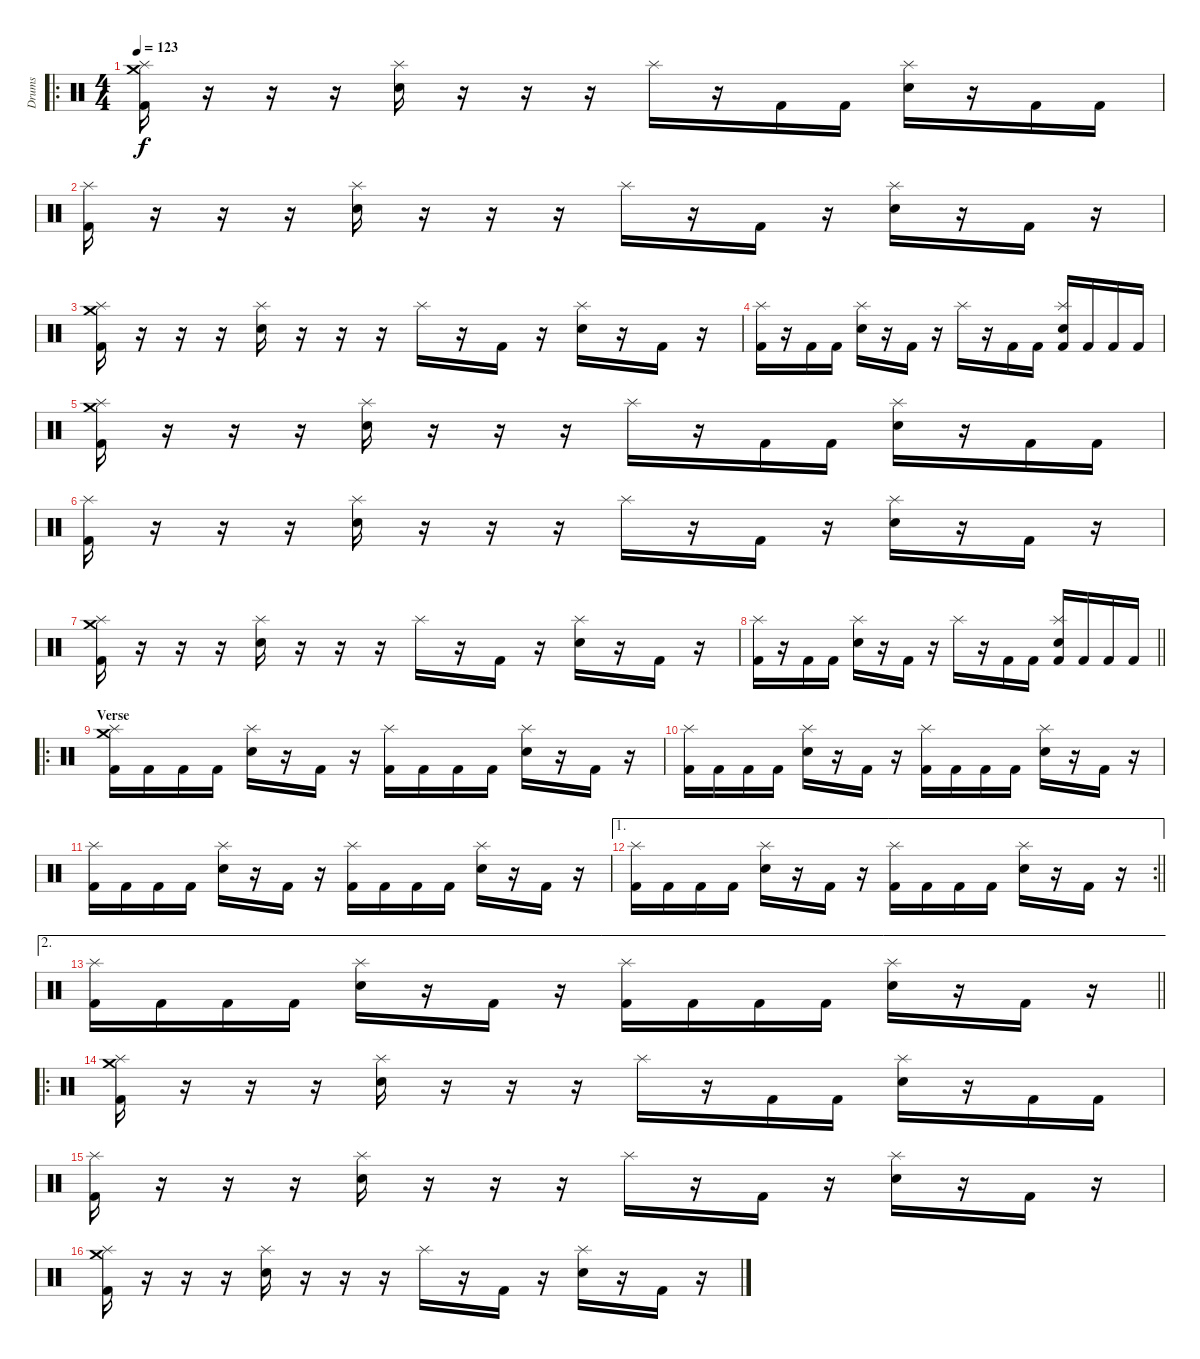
\track ("Drums" "Drums") {instrument percussion}
\staff {score}
\articulation defaults
\ro
\ts (4 4)
\section ("" "")
\tempo 123
\clef neutral
\ks c
("Kick (hit) 2" "Splash (hit)" "Crash medium (hit)").16{dy f} r.16 r.16 r.16 ("Snare (hit) 2" "Splash (hit)").16 r.16 r.16 r.16 "Splash (hit)".16 r.16 "Kick (hit) 2".16 "Kick (hit) 2".16 ("Snare (hit) 2" "Splash (hit)").16 r.16 "Kick (hit) 2".16 "Kick (hit) 2".16 |
("Kick (hit) 2" "Splash (hit)").16 r.16 r.16 r.16 ("Snare (hit) 2" "Splash (hit)").16 r.16 r.16 r.16 "Splash (hit)".16 r.16 "Kick (hit) 2".16 r.16 ("Snare (hit) 2" "Splash (hit)").16 r.16 "Kick (hit) 2".16 r.16 |
("Kick (hit) 2" "Splash (hit)" "Crash medium (hit)").16 r.16 r.16 r.16 ("Snare (hit) 2" "Splash (hit)").16 r.16 r.16 r.16 "Splash (hit)".16 r.16 "Kick (hit) 2".16 r.16 ("Snare (hit) 2" "Splash (hit)").16 r.16 "Kick (hit) 2".16 r.16 |
("Kick (hit) 2" "Splash (hit)").16 r.16 "Kick (hit) 2".16 "Kick (hit) 2".16 ("Snare (hit) 2" "Splash (hit)").16 r.16 "Kick (hit) 2".16 r.16 "Splash (hit)".16 r.16 "Kick (hit) 2".16 "Kick (hit) 2".16 ("Kick (hit) 2" "Snare (hit) 2" "Splash (hit)").16 "Kick (hit) 2".16 "Kick (hit) 2".16 "Kick (hit) 2".16 |
("Kick (hit) 2" "Splash (hit)" "Crash medium (hit)").16 r.16 r.16 r.16 ("Snare (hit) 2" "Splash (hit)").16 r.16 r.16 r.16 "Splash (hit)".16 r.16 "Kick (hit) 2".16 "Kick (hit) 2".16 ("Snare (hit) 2" "Splash (hit)").16 r.16 "Kick (hit) 2".16 "Kick (hit) 2".16 |
("Kick (hit) 2" "Splash (hit)").16 r.16 r.16 r.16 ("Snare (hit) 2" "Splash (hit)").16 r.16 r.16 r.16 "Splash (hit)".16 r.16 "Kick (hit) 2".16 r.16 ("Snare (hit) 2" "Splash (hit)").16 r.16 "Kick (hit) 2".16 r.16 |
("Kick (hit) 2" "Splash (hit)" "Crash medium (hit)").16 r.16 r.16 r.16 ("Snare (hit) 2" "Splash (hit)").16 r.16 r.16 r.16 "Splash (hit)".16 r.16 "Kick (hit) 2".16 r.16 ("Snare (hit) 2" "Splash (hit)").16 r.16 "Kick (hit) 2".16 r.16 |
\barLineRight lightlight
("Kick (hit) 2" "Splash (hit)").16 r.16 "Kick (hit) 2".16 "Kick (hit) 2".16 ("Snare (hit) 2" "Splash (hit)").16 r.16 "Kick (hit) 2".16 r.16 "Splash (hit)".16 r.16 "Kick (hit) 2".16 "Kick (hit) 2".16 ("Kick (hit) 2" "Snare (hit) 2" "Splash (hit)").16 "Kick (hit) 2".16 "Kick (hit) 2".16 "Kick (hit) 2".16 |
\ro
\section ("" "Verse")
("Kick (hit) 2" "Splash (hit)" "Crash medium (hit)").16 "Kick (hit) 2".16 "Kick (hit) 2".16 "Kick (hit) 2".16 ("Snare (hit) 2" "Splash (hit)").16 r.16 "Kick (hit) 2".16 r.16 ("Kick (hit) 2" "Splash (hit)").16 "Kick (hit) 2".16 "Kick (hit) 2".16 "Kick (hit) 2".16 ("Snare (hit) 2" "Splash (hit)").16 r.16 "Kick (hit) 2".16 r.16 |
("Kick (hit) 2" "Splash (hit)").16 "Kick (hit) 2".16 "Kick (hit) 2".16 "Kick (hit) 2".16 ("Snare (hit) 2" "Splash (hit)").16 r.16 "Kick (hit) 2".16 r.16 ("Kick (hit) 2" "Splash (hit)").16 "Kick (hit) 2".16 "Kick (hit) 2".16 "Kick (hit) 2".16 ("Snare (hit) 2" "Splash (hit)").16 r.16 "Kick (hit) 2".16 r.16 |
("Kick (hit) 2" "Splash (hit)").16 "Kick (hit) 2".16 "Kick (hit) 2".16 "Kick (hit) 2".16 ("Snare (hit) 2" "Splash (hit)").16 r.16 "Kick (hit) 2".16 r.16 ("Kick (hit) 2" "Splash (hit)").16 "Kick (hit) 2".16 "Kick (hit) 2".16 "Kick (hit) 2".16 ("Snare (hit) 2" "Splash (hit)").16 r.16 "Kick (hit) 2".16 r.16 |
\ae 1
\rc 2
\barLineRight lightlight
("Kick (hit) 2" "Splash (hit)").16 "Kick (hit) 2".16 "Kick (hit) 2".16 "Kick (hit) 2".16 ("Snare (hit) 2" "Splash (hit)").16 r.16 "Kick (hit) 2".16 r.16 ("Kick (hit) 2" "Splash (hit)").16 "Kick (hit) 2".16 "Kick (hit) 2".16 "Kick (hit) 2".16 ("Snare (hit) 2" "Splash (hit)").16 r.16 "Kick (hit) 2".16 r.16 |
\ae 2
\barLineRight lightlight
("Kick (hit) 2" "Splash (hit)").16 "Kick (hit) 2".16 "Kick (hit) 2".16 "Kick (hit) 2".16 ("Snare (hit) 2" "Splash (hit)").16 r.16 "Kick (hit) 2".16 r.16 ("Kick (hit) 2" "Splash (hit)").16 "Kick (hit) 2".16 "Kick (hit) 2".16 "Kick (hit) 2".16 ("Snare (hit) 2" "Splash (hit)").16 r.16 "Kick (hit) 2".16 r.16 |
\ro
\section ("" "")
("Kick (hit) 2" "Splash (hit)" "Crash medium (hit)").16 r.16 r.16 r.16 ("Snare (hit) 2" "Splash (hit)").16 r.16 r.16 r.16 "Splash (hit)".16 r.16 "Kick (hit) 2".16 "Kick (hit) 2".16 ("Snare (hit) 2" "Splash (hit)").16 r.16 "Kick (hit) 2".16 "Kick (hit) 2".16 |
("Kick (hit) 2" "Splash (hit)").16 r.16 r.16 r.16 ("Snare (hit) 2" "Splash (hit)").16 r.16 r.16 r.16 "Splash (hit)".16 r.16 "Kick (hit) 2".16 r.16 ("Snare (hit) 2" "Splash (hit)").16 r.16 "Kick (hit) 2".16 r.16 |
("Kick (hit) 2" "Splash (hit)" "Crash medium (hit)").16 r.16 r.16 r.16 ("Snare (hit) 2" "Splash (hit)").16 r.16 r.16 r.16 "Splash (hit)".16 r.16 "Kick (hit) 2".16 r.16 ("Snare (hit) 2" "Splash (hit)").16 r.16 "Kick (hit) 2".16 r.16
